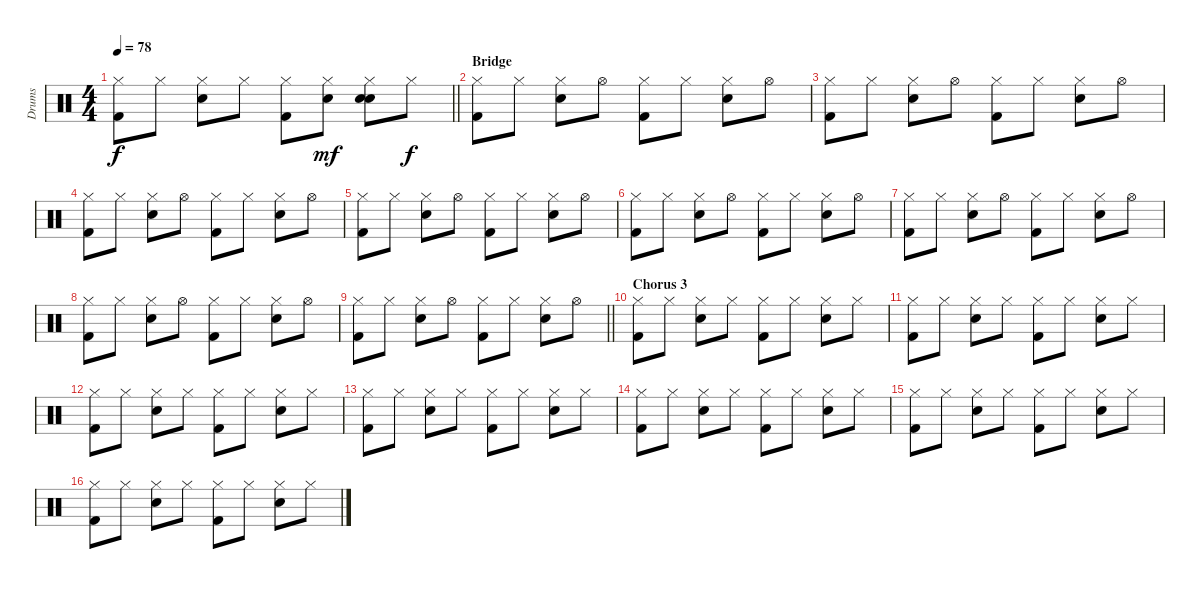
\track ("Drums" "Drums") {instrument percussion}
\staff {score}
\articulation defaults
\ts (4 4)
\tempo 78
\clef neutral
\barLineRight lightlight
\ks c
("Hi-Hat (closed)" "Kick (hit) 2").8{dy f} "Hi-Hat (closed)".8 ("Hi-Hat (closed)" "Snare (hit) 2").8 "Hi-Hat (closed)".8 ("Hi-Hat (closed)" "Kick (hit) 2").8 ("Hi-Hat (closed)" "Hand Clap (hit)").8{dy mf} ("Hi-Hat (closed)" "Snare (hit) 2" "Hand Clap (hit)").8 "Hi-Hat (closed)".8{dy f} |
\section ("" "Bridge")
("Hi-Hat (closed)" "Kick (hit) 2").8 "Hi-Hat (closed)".8 ("Hi-Hat (closed)" "Snare (hit) 2").8 "Hi-Hat (open)".8 ("Hi-Hat (closed)" "Kick (hit) 2").8 "Hi-Hat (closed)".8 ("Hi-Hat (closed)" "Snare (hit) 2").8 "Hi-Hat (open)".8 |
("Hi-Hat (closed)" "Kick (hit) 2").8 "Hi-Hat (closed)".8 ("Hi-Hat (closed)" "Snare (hit) 2").8 "Hi-Hat (open)".8 ("Hi-Hat (closed)" "Kick (hit) 2").8 "Hi-Hat (closed)".8 ("Hi-Hat (closed)" "Snare (hit) 2").8 "Hi-Hat (open)".8 |
("Hi-Hat (closed)" "Kick (hit) 2").8 "Hi-Hat (closed)".8 ("Hi-Hat (closed)" "Snare (hit) 2").8 "Hi-Hat (open)".8 ("Hi-Hat (closed)" "Kick (hit) 2").8 "Hi-Hat (closed)".8 ("Hi-Hat (closed)" "Snare (hit) 2").8 "Hi-Hat (open)".8 |
("Hi-Hat (closed)" "Kick (hit) 2").8 "Hi-Hat (closed)".8 ("Hi-Hat (closed)" "Snare (hit) 2").8 "Hi-Hat (open)".8 ("Hi-Hat (closed)" "Kick (hit) 2").8 "Hi-Hat (closed)".8 ("Hi-Hat (closed)" "Snare (hit) 2").8 "Hi-Hat (open)".8 |
("Hi-Hat (closed)" "Kick (hit) 2").8 "Hi-Hat (closed)".8 ("Hi-Hat (closed)" "Snare (hit) 2").8 "Hi-Hat (open)".8 ("Hi-Hat (closed)" "Kick (hit) 2").8 "Hi-Hat (closed)".8 ("Hi-Hat (closed)" "Snare (hit) 2").8 "Hi-Hat (open)".8 |
("Hi-Hat (closed)" "Kick (hit) 2").8 "Hi-Hat (closed)".8 ("Hi-Hat (closed)" "Snare (hit) 2").8 "Hi-Hat (open)".8 ("Hi-Hat (closed)" "Kick (hit) 2").8 "Hi-Hat (closed)".8 ("Hi-Hat (closed)" "Snare (hit) 2").8 "Hi-Hat (open)".8 |
("Hi-Hat (closed)" "Kick (hit) 2").8 "Hi-Hat (closed)".8 ("Hi-Hat (closed)" "Snare (hit) 2").8 "Hi-Hat (open)".8 ("Hi-Hat (closed)" "Kick (hit) 2").8 "Hi-Hat (closed)".8 ("Hi-Hat (closed)" "Snare (hit) 2").8 "Hi-Hat (open)".8 |
\barLineRight lightlight
("Hi-Hat (closed)" "Kick (hit) 2").8 "Hi-Hat (closed)".8 ("Hi-Hat (closed)" "Snare (hit) 2").8 "Hi-Hat (open)".8 ("Hi-Hat (closed)" "Kick (hit) 2").8 "Hi-Hat (closed)".8 ("Hi-Hat (closed)" "Snare (hit) 2").8 "Hi-Hat (open)".8 |
\section ("" "Chorus 3")
("Hi-Hat (closed)" "Kick (hit) 2").8 "Hi-Hat (closed)".8 ("Hi-Hat (closed)" "Snare (hit) 2").8 "Hi-Hat (closed)".8 ("Hi-Hat (closed)" "Kick (hit) 2").8 "Hi-Hat (closed)".8 ("Hi-Hat (closed)" "Snare (hit) 2").8 "Hi-Hat (closed)".8 |
("Hi-Hat (closed)" "Kick (hit) 2").8 "Hi-Hat (closed)".8 ("Hi-Hat (closed)" "Snare (hit) 2").8 "Hi-Hat (closed)".8 ("Hi-Hat (closed)" "Kick (hit) 2").8 "Hi-Hat (closed)".8 ("Hi-Hat (closed)" "Snare (hit) 2").8 "Hi-Hat (closed)".8 |
("Hi-Hat (closed)" "Kick (hit) 2").8 "Hi-Hat (closed)".8 ("Hi-Hat (closed)" "Snare (hit) 2").8 "Hi-Hat (closed)".8 ("Hi-Hat (closed)" "Kick (hit) 2").8 "Hi-Hat (closed)".8 ("Hi-Hat (closed)" "Snare (hit) 2").8 "Hi-Hat (closed)".8 |
("Hi-Hat (closed)" "Kick (hit) 2").8 "Hi-Hat (closed)".8 ("Hi-Hat (closed)" "Snare (hit) 2").8 "Hi-Hat (closed)".8 ("Hi-Hat (closed)" "Kick (hit) 2").8 "Hi-Hat (closed)".8 ("Hi-Hat (closed)" "Snare (hit) 2").8 "Hi-Hat (closed)".8 |
("Hi-Hat (closed)" "Kick (hit) 2").8 "Hi-Hat (closed)".8 ("Hi-Hat (closed)" "Snare (hit) 2").8 "Hi-Hat (closed)".8 ("Hi-Hat (closed)" "Kick (hit) 2").8 "Hi-Hat (closed)".8 ("Hi-Hat (closed)" "Snare (hit) 2").8 "Hi-Hat (closed)".8 |
("Hi-Hat (closed)" "Kick (hit) 2").8 "Hi-Hat (closed)".8 ("Hi-Hat (closed)" "Snare (hit) 2").8 "Hi-Hat (closed)".8 ("Hi-Hat (closed)" "Kick (hit) 2").8 "Hi-Hat (closed)".8 ("Hi-Hat (closed)" "Snare (hit) 2").8 "Hi-Hat (closed)".8 |
("Hi-Hat (closed)" "Kick (hit) 2").8 "Hi-Hat (closed)".8 ("Hi-Hat (closed)" "Snare (hit) 2").8 "Hi-Hat (closed)".8 ("Hi-Hat (closed)" "Kick (hit) 2").8 "Hi-Hat (closed)".8 ("Hi-Hat (closed)" "Snare (hit) 2").8 "Hi-Hat (closed)".8
